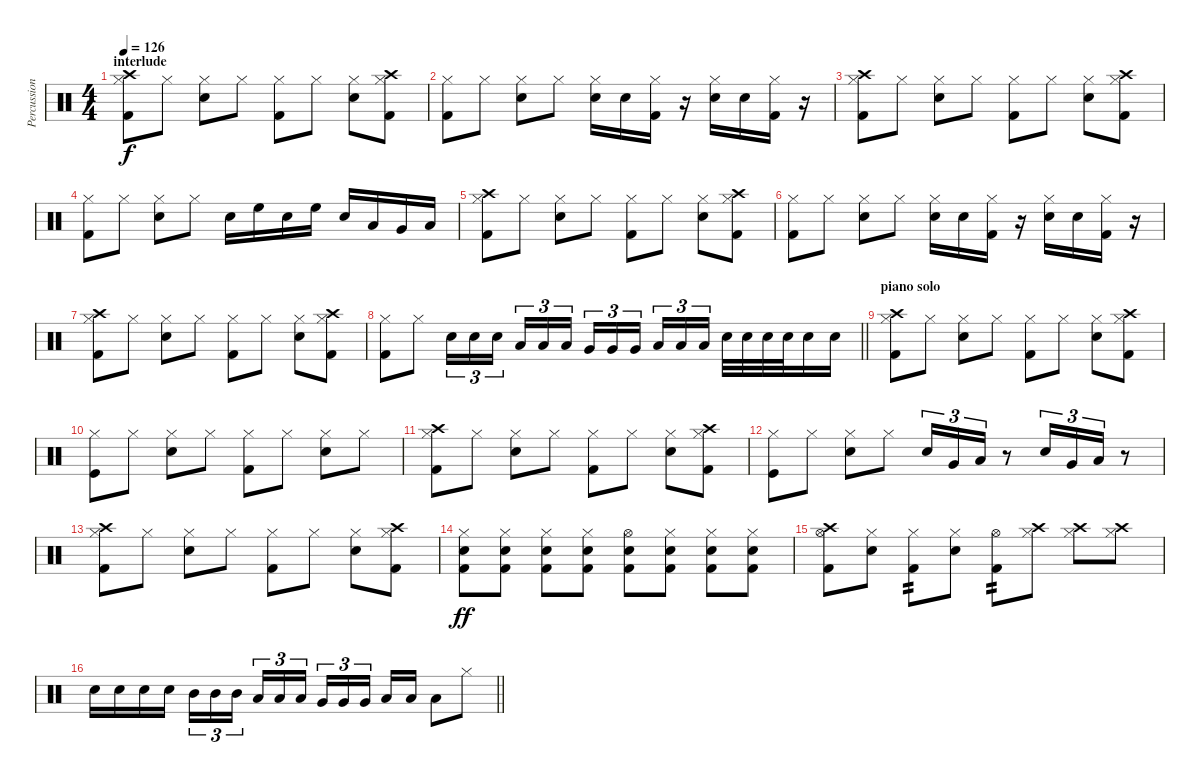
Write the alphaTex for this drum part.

\track ("Percussion" "Percussion") {instrument percussion}
\staff {score}
\articulation defaults
\ts (4 4)
\section ("" "interlude")
\tempo 126
\clef neutral
\ks c
("Hi-Hat (closed)" "Kick (hit) 2" "Crash high (hit)").8{dy f} "Hi-Hat (closed)".8 ("Hi-Hat (closed)" "Electric Snare (hit)").8 "Hi-Hat (closed)".8 ("Hi-Hat (closed)" "Kick (hit) 2").8 "Hi-Hat (closed)".8 ("Hi-Hat (closed)" "Electric Snare (hit)").8 ("Hi-Hat (closed)" "Kick (hit) 2" "Crash high (hit)").8 |
("Hi-Hat (closed)" "Kick (hit) 2").8 "Hi-Hat (closed)".8 ("Hi-Hat (closed)" "Electric Snare (hit)").8 "Hi-Hat (closed)".8 ("Hi-Hat (closed)" "Electric Snare (hit)").16 "Electric Snare (hit)".16 ("Hi-Hat (closed)" "Kick (hit) 2").16 r.16 ("Hi-Hat (closed)" "Electric Snare (hit)").16 "Electric Snare (hit)".16 ("Hi-Hat (closed)" "Kick (hit) 2").16 r.16 |
("Hi-Hat (closed)" "Kick (hit) 2" "Crash high (hit)").8 "Hi-Hat (closed)".8 ("Hi-Hat (closed)" "Electric Snare (hit)").8 "Hi-Hat (closed)".8 ("Hi-Hat (closed)" "Kick (hit) 2").8 "Hi-Hat (closed)".8 ("Hi-Hat (closed)" "Electric Snare (hit)").8 ("Hi-Hat (closed)" "Kick (hit) 2" "Crash high (hit)").8 |
("Hi-Hat (closed)" "Kick (hit) 2").8 "Hi-Hat (closed)".8 ("Hi-Hat (closed)" "Electric Snare (hit)").8 "Hi-Hat (closed)".8 "Electric Snare (hit)".16 "High Floor Tom (hit)".16 "Electric Snare (hit)".16 "High Floor Tom (hit)".16 "Electric Snare (hit)".16 "Low Tom (hit)".16 "Very Low Tom (hit)".16 "Low Floor Tom (hit)".16 |
("Hi-Hat (closed)" "Kick (hit) 2" "Crash high (hit)").8 "Hi-Hat (closed)".8 ("Hi-Hat (closed)" "Electric Snare (hit)").8 "Hi-Hat (closed)".8 ("Hi-Hat (closed)" "Kick (hit) 2").8 "Hi-Hat (closed)".8 ("Hi-Hat (closed)" "Electric Snare (hit)").8 ("Hi-Hat (closed)" "Kick (hit) 2" "Crash high (hit)").8 |
("Hi-Hat (closed)" "Kick (hit) 2").8 "Hi-Hat (closed)".8 ("Hi-Hat (closed)" "Electric Snare (hit)").8 "Hi-Hat (closed)".8 ("Hi-Hat (closed)" "Electric Snare (hit)").16 "Electric Snare (hit)".16 ("Hi-Hat (closed)" "Kick (hit) 2").16 r.16 ("Hi-Hat (closed)" "Electric Snare (hit)").16 "Electric Snare (hit)".16 ("Hi-Hat (closed)" "Kick (hit) 2").16 r.16 |
("Hi-Hat (closed)" "Kick (hit) 2" "Crash high (hit)").8 "Hi-Hat (closed)".8 ("Hi-Hat (closed)" "Electric Snare (hit)").8 "Hi-Hat (closed)".8 ("Hi-Hat (closed)" "Kick (hit) 2").8 "Hi-Hat (closed)".8 ("Hi-Hat (closed)" "Electric Snare (hit)").8 ("Hi-Hat (closed)" "Kick (hit) 2" "Crash high (hit)").8 |
\barLineRight lightlight
("Hi-Hat (closed)" "Kick (hit) 2").8 "Hi-Hat (closed)".8 "Electric Snare (hit)".16{tu (3 2)} "Electric Snare (hit)".16{tu (3 2)} "Electric Snare (hit)".16{tu (3 2) beam splitsecondary} "Low Tom (hit)".16{tu (3 2)} "Low Tom (hit)".16{tu (3 2)} "Low Tom (hit)".16{tu (3 2)} "Very Low Tom (hit)".16{tu (3 2)} "Very Low Tom (hit)".16{tu (3 2)} "Very Low Tom (hit)".16{tu (3 2) beam splitsecondary} "Low Floor Tom (hit)".16{tu (3 2)} "Low Floor Tom (hit)".16{tu (3 2)} "Low Floor Tom (hit)".16{tu (3 2)} "Electric Snare (hit)".32 "Electric Snare (hit)".32 "Electric Snare (hit)".32 "Electric Snare (hit)".32 "Electric Snare (hit)".16 "Electric Snare (hit)".16 |
\section ("" "piano solo")
("Hi-Hat (closed)" "Kick (hit) 2" "Crash high (hit)").8 "Hi-Hat (closed)".8 ("Hi-Hat (closed)" "Electric Snare (hit)").8 "Hi-Hat (closed)".8 ("Hi-Hat (closed)" "Kick (hit) 2").8 "Hi-Hat (closed)".8 ("Hi-Hat (closed)" "Electric Snare (hit)").8 ("Hi-Hat (closed)" "Kick (hit) 2" "Crash high (hit)").8 |
("Hi-Hat (closed)" "Kick (hit)").8 "Hi-Hat (closed)".8 ("Hi-Hat (closed)" "Electric Snare (hit)").8 "Hi-Hat (closed)".8 ("Hi-Hat (closed)" "Kick (hit) 2").8 "Hi-Hat (closed)".8 ("Hi-Hat (closed)" "Electric Snare (hit)").8 "Hi-Hat (closed)".8 |
("Hi-Hat (closed)" "Kick (hit) 2" "Crash high (hit)").8 "Hi-Hat (closed)".8 ("Hi-Hat (closed)" "Electric Snare (hit)").8 "Hi-Hat (closed)".8 ("Hi-Hat (closed)" "Kick (hit) 2").8 "Hi-Hat (closed)".8 ("Hi-Hat (closed)" "Electric Snare (hit)").8 ("Hi-Hat (closed)" "Kick (hit) 2" "Crash high (hit)").8 |
("Hi-Hat (closed)" "Kick (hit)").8 "Hi-Hat (closed)".8 ("Hi-Hat (closed)" "Electric Snare (hit)").8 "Hi-Hat (closed)".8 "Electric Snare (hit)".16{tu (3 2)} "Very Low Tom (hit)".16{tu (3 2)} "Low Floor Tom (hit)".16{tu (3 2)} r.8 "Electric Snare (hit)".16{tu (3 2)} "Very Low Tom (hit)".16{tu (3 2)} "Low Floor Tom (hit)".16{tu (3 2)} r.8 |
("Hi-Hat (closed)" "Kick (hit) 2" "Crash high (hit)").8 "Hi-Hat (closed)".8 ("Hi-Hat (closed)" "Electric Snare (hit)").8 "Hi-Hat (closed)".8 ("Hi-Hat (closed)" "Kick (hit) 2").8 "Hi-Hat (closed)".8 ("Hi-Hat (closed)" "Electric Snare (hit)").8 ("Hi-Hat (closed)" "Kick (hit) 2" "Crash high (hit)").8 |
("Kick (hit) 2" "Electric Snare (hit)" "Hi-Hat (closed)").8{dy ff} ("Kick (hit) 2" "Electric Snare (hit)" "Hi-Hat (closed)").8 ("Kick (hit) 2" "Electric Snare (hit)" "Hi-Hat (closed)").8 ("Kick (hit) 2" "Electric Snare (hit)" "Hi-Hat (closed)").8 ("Kick (hit) 2" "Electric Snare (hit)" "Hi-Hat (open)").8 ("Kick (hit) 2" "Electric Snare (hit)" "Hi-Hat (closed)").8 ("Kick (hit) 2" "Electric Snare (hit)" "Hi-Hat (closed)").8 ("Kick (hit) 2" "Electric Snare (hit)" "Hi-Hat (closed)").8 |
("Crash high (hit)" "Kick (hit) 2" "Hi-Hat (open)").8 ("Electric Snare (hit)" "Hi-Hat (closed)").8 ("Kick (hit) 2" "Hi-Hat (closed)").8{tp 2} ("Electric Snare (hit)" "Hi-Hat (closed)").8 ("Kick (hit) 2" "Hi-Hat (open)").8{tp 2} ("Crash high (hit)" "Hi-Hat (closed)").8 ("Crash high (hit)" "Hi-Hat (closed)").8 ("Crash high (hit)" "Hi-Hat (closed)").8 |
\barLineRight lightlight "Electric Snare (hit)".16 "Electric Snare (hit)".16 "Electric Snare (hit)".16 "Electric Snare (hit)".16 "Mid Tom (hit)".16{tu (3 2)} "Mid Tom (hit)".16{tu (3 2)} "Mid Tom (hit)".16{tu (3 2) beam splitsecondary} "Low Tom (hit)".16{tu (3 2)} "Low Tom (hit)".16{tu (3 2)} "Low Tom (hit)".16{tu (3 2)} "Very Low Tom (hit)".16{tu (3 2)} "Very Low Tom (hit)".16{tu (3 2)} "Very Low Tom (hit)".16{tu (3 2) beam splitsecondary} "Low Floor Tom (hit)".16 "Low Floor Tom (hit)".16 "Low Floor Tom (hit)".8 "Hi-Hat (closed)".8
